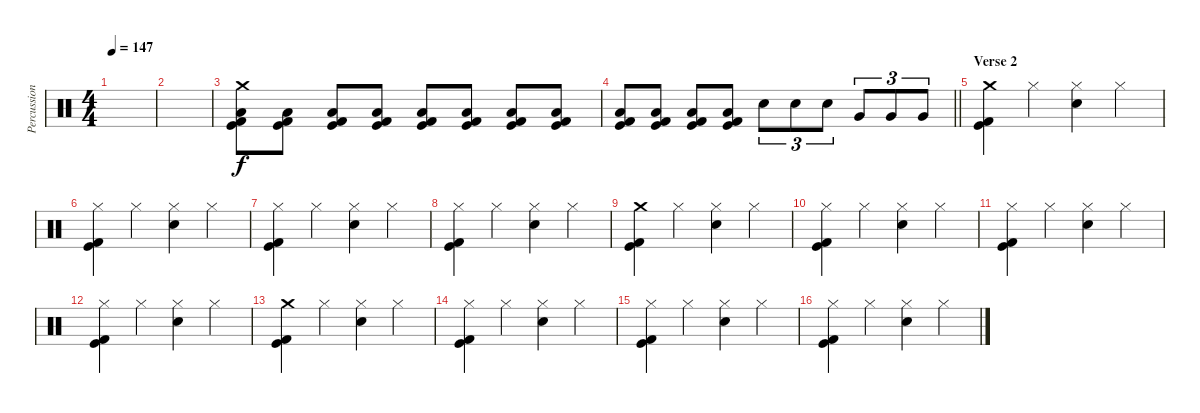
\track ("Percussion" "Percussion") {instrument percussion}
\staff {score}
\articulation defaults
\ts (4 4)
\tempo 147
\clef neutral
\ks c
|
|
("Crash medium (hit)" "Low Floor Tom (hit)" "Kick (hit) 2" "Kick (hit)").8 ("Low Floor Tom (hit)" "Kick (hit) 2" "Kick (hit)").8 ("Low Floor Tom (hit)" "Kick (hit) 2" "Kick (hit)").8 ("Low Floor Tom (hit)" "Kick (hit) 2" "Kick (hit)").8 ("Low Floor Tom (hit)" "Kick (hit) 2" "Kick (hit)").8 ("Low Floor Tom (hit)" "Kick (hit) 2" "Kick (hit)").8 ("Low Floor Tom (hit)" "Kick (hit) 2" "Kick (hit)").8 ("Low Floor Tom (hit)" "Kick (hit) 2" "Kick (hit)").8 |
\barLineRight lightlight
("Low Floor Tom (hit)" "Kick (hit) 2" "Kick (hit)").8 ("Low Floor Tom (hit)" "Kick (hit) 2" "Kick (hit)").8 ("Low Floor Tom (hit)" "Kick (hit) 2" "Kick (hit)").8 ("Low Floor Tom (hit)" "Kick (hit) 2" "Kick (hit)").8 "Snare (hit) 2".8{tu (3 2)} "Snare (hit) 2".8{tu (3 2)} "Snare (hit) 2".8{tu (3 2)} "Very Low Tom (hit)".8{tu (3 2)} "Very Low Tom (hit)".8{tu (3 2)} "Very Low Tom (hit)".8{tu (3 2)} |
\section ("" "Verse 2")
("Crash medium (hit)" "Kick (hit) 2" "Kick (hit)").4{dy f} "Hi-Hat (closed)".4 ("Hi-Hat (closed)" "Snare (hit) 2").4 "Hi-Hat (closed)".4 |
("Hi-Hat (closed)" "Kick (hit) 2" "Kick (hit)").4 "Hi-Hat (closed)".4 ("Hi-Hat (closed)" "Snare (hit) 2").4 "Hi-Hat (closed)".4 |
("Hi-Hat (closed)" "Kick (hit) 2" "Kick (hit)").4 "Hi-Hat (closed)".4 ("Hi-Hat (closed)" "Snare (hit) 2").4 "Hi-Hat (closed)".4 |
("Hi-Hat (closed)" "Kick (hit) 2" "Kick (hit)").4 "Hi-Hat (closed)".4 ("Hi-Hat (closed)" "Snare (hit) 2").4 "Hi-Hat (closed)".4 |
("Crash medium (hit)" "Kick (hit) 2" "Kick (hit)").4 "Hi-Hat (closed)".4 ("Hi-Hat (closed)" "Snare (hit) 2").4 "Hi-Hat (closed)".4 |
("Hi-Hat (closed)" "Kick (hit) 2" "Kick (hit)").4 "Hi-Hat (closed)".4 ("Hi-Hat (closed)" "Snare (hit) 2").4 "Hi-Hat (closed)".4 |
("Hi-Hat (closed)" "Kick (hit) 2" "Kick (hit)").4 "Hi-Hat (closed)".4 ("Hi-Hat (closed)" "Snare (hit) 2").4 "Hi-Hat (closed)".4 |
("Hi-Hat (closed)" "Kick (hit) 2" "Kick (hit)").4 "Hi-Hat (closed)".4 ("Hi-Hat (closed)" "Snare (hit) 2").4 "Hi-Hat (closed)".4 |
("Crash medium (hit)" "Kick (hit) 2" "Kick (hit)").4 "Hi-Hat (closed)".4 ("Hi-Hat (closed)" "Snare (hit) 2").4 "Hi-Hat (closed)".4 |
("Hi-Hat (closed)" "Kick (hit) 2" "Kick (hit)").4 "Hi-Hat (closed)".4 ("Hi-Hat (closed)" "Snare (hit) 2").4 "Hi-Hat (closed)".4 |
("Hi-Hat (closed)" "Kick (hit) 2" "Kick (hit)").4 "Hi-Hat (closed)".4 ("Hi-Hat (closed)" "Snare (hit) 2").4 "Hi-Hat (closed)".4 |
("Hi-Hat (closed)" "Kick (hit) 2" "Kick (hit)").4 "Hi-Hat (closed)".4 ("Hi-Hat (closed)" "Snare (hit) 2").4 "Hi-Hat (closed)".4
